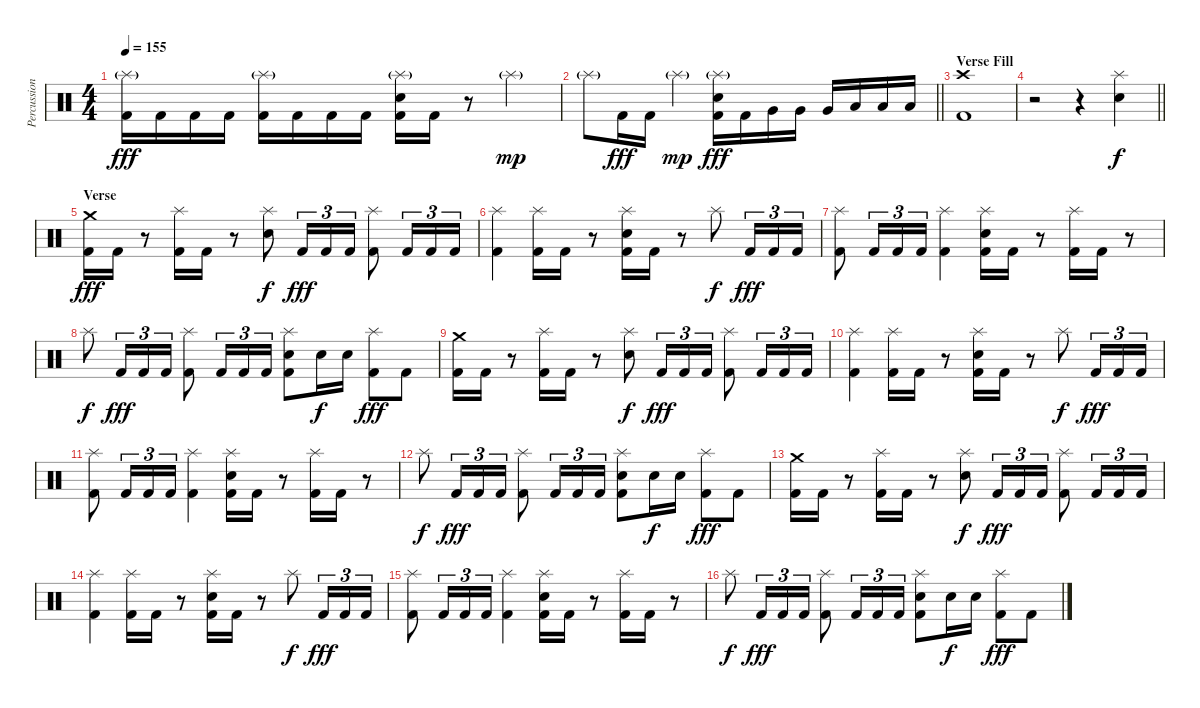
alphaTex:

\track ("Percussion" "Percussion") {instrument percussion}
\staff {score}
\articulation defaults
\ts (4 4)
\tempo 155
\clef neutral
\ks c
("Splash (hit)"{g} "Kick (hit) 2").16{dy fff} "Kick (hit) 2".16 "Kick (hit) 2".16 "Kick (hit) 2".16 ("Splash (hit)"{g} "Kick (hit) 2").16 "Kick (hit) 2".16 "Kick (hit) 2".16 "Kick (hit) 2".16 ("Splash (hit)"{g} "Electric Snare (hit)" "Kick (hit) 2").16 "Kick (hit) 2".16 r.8 "Splash (hit)"{g}.4{dy mp} |
\barLineRight lightlight "Splash (hit)"{g}.8 "Kick (hit) 2".16{dy fff} "Kick (hit) 2".16 "Splash (hit)"{g}.4{dy mp}
("Splash (hit)"{g} "Electric Snare (hit)" "Kick (hit) 2").16{dy fff} "Kick (hit) 2".16 "Very Low Tom (hit)".16 "Very Low Tom (hit)".16 "Very Low Tom (hit)".16 "Low Floor Tom (hit)".16 "Low Floor Tom (hit)".16 "Low Floor Tom (hit)".16 |
\section ("" "Verse Fill")
("Crash high (hit)" "Kick (hit) 2").1 |
\barLineRight lightlight
r.2 r.4 ("Splash (hit)" "Electric Snare (hit)").4{dy f} |
\section ("" "Verse")
("Crash medium (hit)" "Kick (hit) 2").16{dy fff} "Kick (hit) 2".16 r.8 ("Splash (hit)" "Kick (hit) 2").16 "Kick (hit) 2".16 r.8 ("Splash (hit)" "Electric Snare (hit)").8{dy f} "Kick (hit) 2".16{tu (3 2) dy fff} "Kick (hit) 2".16{tu (3 2)} "Kick (hit) 2".16{tu (3 2)} ("Splash (hit)" "Kick (hit) 2").8 "Kick (hit) 2".16{tu (3 2)} "Kick (hit) 2".16{tu (3 2)} "Kick (hit) 2".16{tu (3 2)} |
("Splash (hit)" "Kick (hit) 2").4 ("Splash (hit)" "Kick (hit) 2").16 "Kick (hit) 2".16 r.8 ("Splash (hit)" "Electric Snare (hit)" "Kick (hit) 2").16 "Kick (hit) 2".16 r.8 "Splash (hit)".8{dy f} "Kick (hit) 2".16{tu (3 2) dy fff} "Kick (hit) 2".16{tu (3 2)} "Kick (hit) 2".16{tu (3 2)} |
("Splash (hit)" "Kick (hit) 2").8 "Kick (hit) 2".16{tu (3 2)} "Kick (hit) 2".16{tu (3 2)} "Kick (hit) 2".16{tu (3 2)} ("Splash (hit)" "Kick (hit) 2").4 ("Splash (hit)" "Electric Snare (hit)" "Kick (hit) 2").16 "Kick (hit) 2".16 r.8 ("Splash (hit)" "Kick (hit) 2").16 "Kick (hit) 2".16 r.8 |
"Splash (hit)".8{dy f} "Kick (hit) 2".16{tu (3 2) dy fff} "Kick (hit) 2".16{tu (3 2)} "Kick (hit) 2".16{tu (3 2)} ("Splash (hit)" "Kick (hit) 2").8 "Kick (hit) 2".16{tu (3 2)} "Kick (hit) 2".16{tu (3 2)} "Kick (hit) 2".16{tu (3 2)} ("Splash (hit)" "Electric Snare (hit)" "Kick (hit) 2").8 "Electric Snare (hit)".16{dy f} "Electric Snare (hit)".16 ("Splash (hit)" "Kick (hit) 2").8{dy fff} "Kick (hit) 2".8 |
("Crash medium (hit)" "Kick (hit) 2").16 "Kick (hit) 2".16 r.8 ("Splash (hit)" "Kick (hit) 2").16 "Kick (hit) 2".16 r.8 ("Splash (hit)" "Electric Snare (hit)").8{dy f} "Kick (hit) 2".16{tu (3 2) dy fff} "Kick (hit) 2".16{tu (3 2)} "Kick (hit) 2".16{tu (3 2)} ("Splash (hit)" "Kick (hit) 2").8 "Kick (hit) 2".16{tu (3 2)} "Kick (hit) 2".16{tu (3 2)} "Kick (hit) 2".16{tu (3 2)} |
("Splash (hit)" "Kick (hit) 2").4 ("Splash (hit)" "Kick (hit) 2").16 "Kick (hit) 2".16 r.8 ("Splash (hit)" "Electric Snare (hit)" "Kick (hit) 2").16 "Kick (hit) 2".16 r.8 "Splash (hit)".8{dy f} "Kick (hit) 2".16{tu (3 2) dy fff} "Kick (hit) 2".16{tu (3 2)} "Kick (hit) 2".16{tu (3 2)} |
("Splash (hit)" "Kick (hit) 2").8 "Kick (hit) 2".16{tu (3 2)} "Kick (hit) 2".16{tu (3 2)} "Kick (hit) 2".16{tu (3 2)} ("Splash (hit)" "Kick (hit) 2").4 ("Splash (hit)" "Electric Snare (hit)" "Kick (hit) 2").16 "Kick (hit) 2".16 r.8 ("Splash (hit)" "Kick (hit) 2").16 "Kick (hit) 2".16 r.8 |
"Splash (hit)".8{dy f} "Kick (hit) 2".16{tu (3 2) dy fff} "Kick (hit) 2".16{tu (3 2)} "Kick (hit) 2".16{tu (3 2)} ("Splash (hit)" "Kick (hit) 2").8 "Kick (hit) 2".16{tu (3 2)} "Kick (hit) 2".16{tu (3 2)} "Kick (hit) 2".16{tu (3 2)} ("Splash (hit)" "Electric Snare (hit)" "Kick (hit) 2").8 "Electric Snare (hit)".16{dy f} "Electric Snare (hit)".16 ("Splash (hit)" "Kick (hit) 2").8{dy fff} "Kick (hit) 2".8 |
("Crash medium (hit)" "Kick (hit) 2").16 "Kick (hit) 2".16 r.8 ("Splash (hit)" "Kick (hit) 2").16 "Kick (hit) 2".16 r.8 ("Splash (hit)" "Electric Snare (hit)").8{dy f} "Kick (hit) 2".16{tu (3 2) dy fff} "Kick (hit) 2".16{tu (3 2)} "Kick (hit) 2".16{tu (3 2)} ("Splash (hit)" "Kick (hit) 2").8 "Kick (hit) 2".16{tu (3 2)} "Kick (hit) 2".16{tu (3 2)} "Kick (hit) 2".16{tu (3 2)} |
("Splash (hit)" "Kick (hit) 2").4 ("Splash (hit)" "Kick (hit) 2").16 "Kick (hit) 2".16 r.8 ("Splash (hit)" "Electric Snare (hit)" "Kick (hit) 2").16 "Kick (hit) 2".16 r.8 "Splash (hit)".8{dy f} "Kick (hit) 2".16{tu (3 2) dy fff} "Kick (hit) 2".16{tu (3 2)} "Kick (hit) 2".16{tu (3 2)} |
("Splash (hit)" "Kick (hit) 2").8 "Kick (hit) 2".16{tu (3 2)} "Kick (hit) 2".16{tu (3 2)} "Kick (hit) 2".16{tu (3 2)} ("Splash (hit)" "Kick (hit) 2").4 ("Splash (hit)" "Electric Snare (hit)" "Kick (hit) 2").16 "Kick (hit) 2".16 r.8 ("Splash (hit)" "Kick (hit) 2").16 "Kick (hit) 2".16 r.8 |
"Splash (hit)".8{dy f} "Kick (hit) 2".16{tu (3 2) dy fff} "Kick (hit) 2".16{tu (3 2)} "Kick (hit) 2".16{tu (3 2)} ("Splash (hit)" "Kick (hit) 2").8 "Kick (hit) 2".16{tu (3 2)} "Kick (hit) 2".16{tu (3 2)} "Kick (hit) 2".16{tu (3 2)} ("Splash (hit)" "Electric Snare (hit)" "Kick (hit) 2").8 "Electric Snare (hit)".16{dy f} "Electric Snare (hit)".16 ("Splash (hit)" "Kick (hit) 2").8{dy fff} "Kick (hit) 2".8
